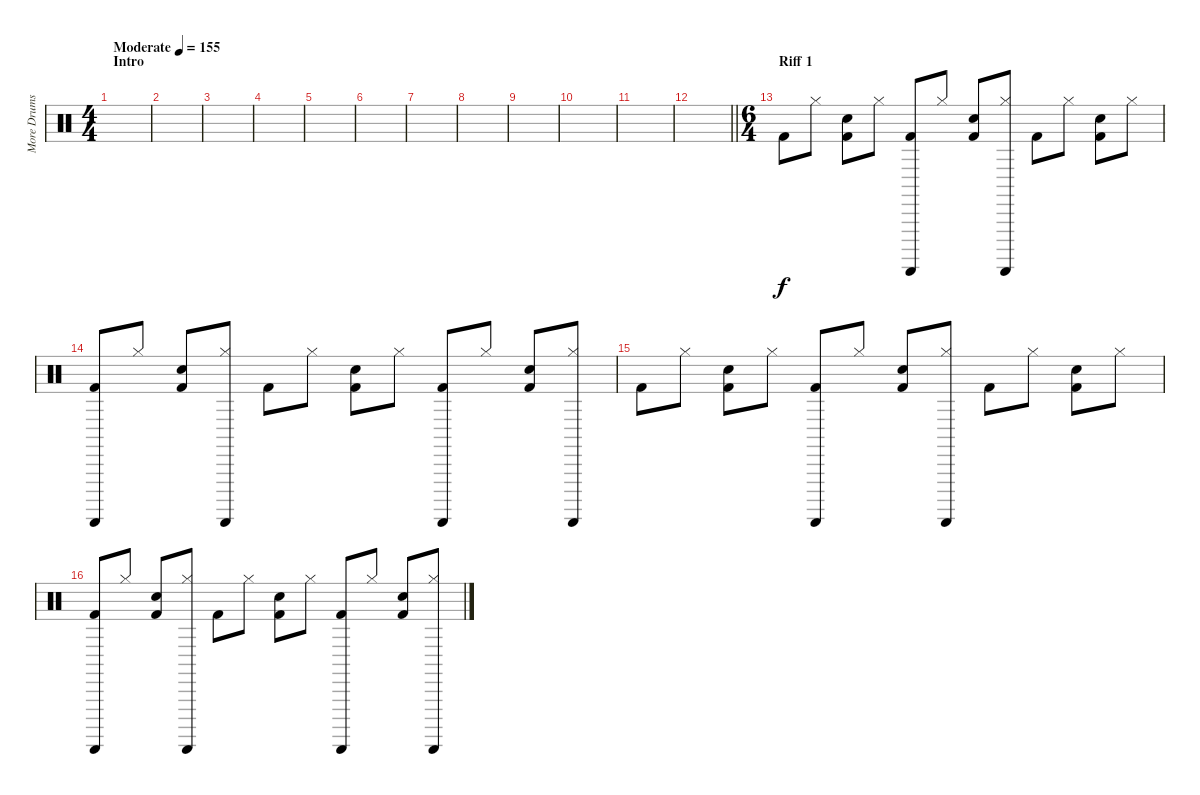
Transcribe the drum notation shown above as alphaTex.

\track ("More Drums" "More Drums") {instrument percussion}
\staff {score}
\articulation defaults
\ts (4 4)
\section ("" "Intro")
\tempo (155 "Moderate")
\clef neutral
\ks c
|
|
|
|
|
|
|
|
|
|
|
\barLineRight lightlight
|
\ts (6 4)
\section ("" "Riff 1")
"Kick (hit) 2".8 "Hi-Hat (closed)".8 ("Kick (hit) 2" "Electric Snare (hit)").8 "Hi-Hat (closed)".8 ("Kick (hit) 2" "Guiro (scrap-return)").8 "Hi-Hat (closed)".8 ("Kick (hit) 2" "Electric Snare (hit)").8 ("Hi-Hat (closed)" "Guiro (scrap-return)").8 "Kick (hit) 2".8 "Hi-Hat (closed)".8 ("Kick (hit) 2" "Electric Snare (hit)").8 "Hi-Hat (closed)".8 |
("Kick (hit) 2" "Guiro (scrap-return)").8 "Hi-Hat (closed)".8 ("Kick (hit) 2" "Electric Snare (hit)").8 ("Hi-Hat (closed)" "Guiro (scrap-return)").8 "Kick (hit) 2".8 "Hi-Hat (closed)".8 ("Kick (hit) 2" "Electric Snare (hit)").8 "Hi-Hat (closed)".8 ("Kick (hit) 2" "Guiro (scrap-return)").8 "Hi-Hat (closed)".8 ("Kick (hit) 2" "Electric Snare (hit)").8 ("Hi-Hat (closed)" "Guiro (scrap-return)").8 |
"Kick (hit) 2".8 "Hi-Hat (closed)".8 ("Kick (hit) 2" "Electric Snare (hit)").8 "Hi-Hat (closed)".8 ("Kick (hit) 2" "Guiro (scrap-return)").8 "Hi-Hat (closed)".8 ("Kick (hit) 2" "Electric Snare (hit)").8 ("Hi-Hat (closed)" "Guiro (scrap-return)").8 "Kick (hit) 2".8 "Hi-Hat (closed)".8 ("Kick (hit) 2" "Electric Snare (hit)").8 "Hi-Hat (closed)".8 |
("Kick (hit) 2" "Guiro (scrap-return)").8 "Hi-Hat (closed)".8 ("Kick (hit) 2" "Electric Snare (hit)").8 ("Hi-Hat (closed)" "Guiro (scrap-return)").8 "Kick (hit) 2".8 "Hi-Hat (closed)".8 ("Kick (hit) 2" "Electric Snare (hit)").8 "Hi-Hat (closed)".8 ("Kick (hit) 2" "Guiro (scrap-return)").8 "Hi-Hat (closed)".8 ("Kick (hit) 2" "Electric Snare (hit)").8 ("Hi-Hat (closed)" "Guiro (scrap-return)").8
